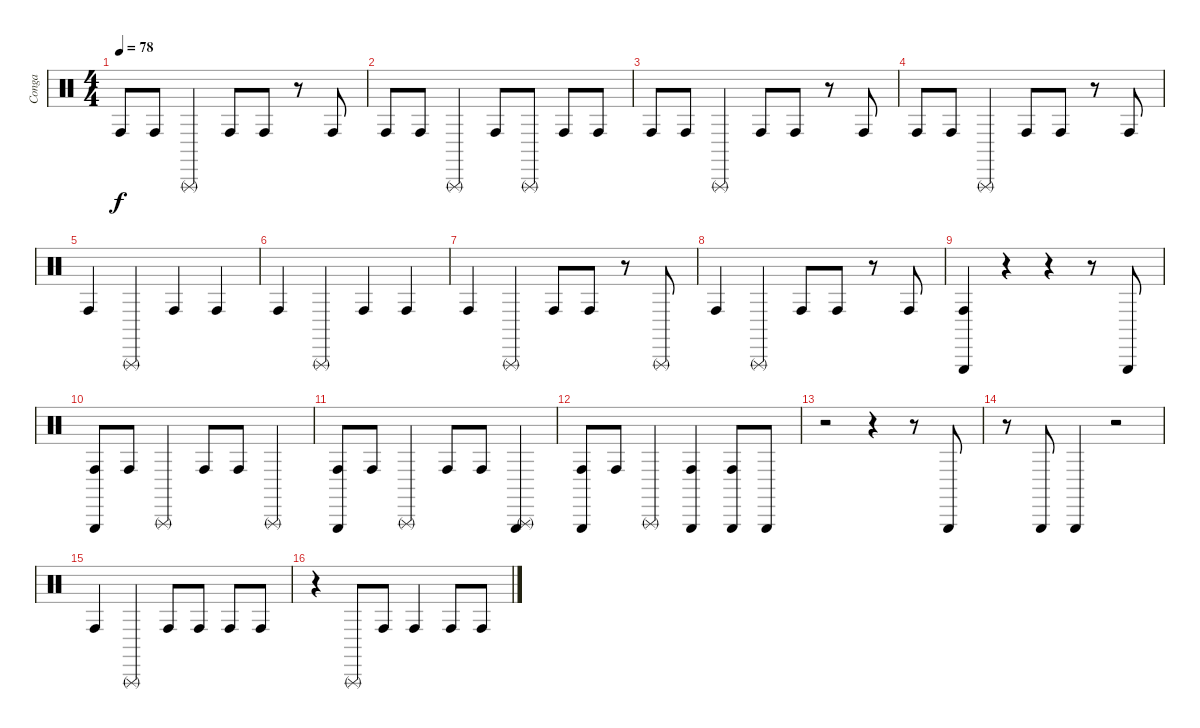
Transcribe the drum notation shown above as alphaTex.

\track ("Conga" "Conga") {instrument percussion}
\staff {score}
\articulation defaults
\ts (4 4)
\tempo 78
\clef neutral
\ks c "Conga high (hit)".8{dy f} "Conga high (hit)".8 "Triangle (rnute)".4 "Conga high (hit)".8 "Conga high (hit)".8
r.8 "Conga high (hit)".8 |
"Conga high (hit)".8 "Conga high (hit)".8 "Triangle (rnute)".4 "Conga high (hit)".8 "Triangle (rnute)".8 "Conga high (hit)".8 "Conga high (hit)".8 |
"Conga high (hit)".8 "Conga high (hit)".8 "Triangle (rnute)".4 "Conga high (hit)".8 "Conga high (hit)".8 r.8 "Conga high (hit)".8 |
"Conga high (hit)".8 "Conga high (hit)".8 "Triangle (rnute)".4 "Conga high (hit)".8 "Conga high (hit)".8 r.8 "Conga high (hit)".8 |
"Conga high (hit)".4 "Triangle (rnute)".4 "Conga high (hit)".4 "Conga high (hit)".4 |
"Conga high (hit)".4 "Triangle (rnute)".4 "Conga high (hit)".4 "Conga high (hit)".4 |
"Conga high (hit)".4 "Triangle (rnute)".4 "Conga high (hit)".8 "Conga high (hit)".8 r.8 "Triangle (rnute)".8 |
"Conga high (hit)".4 "Triangle (rnute)".4 "Conga high (hit)".8 "Conga high (hit)".8 r.8 "Conga high (hit)".8 |
("Triangle (hit)" "Conga high (hit)").4 r.4 r.4 r.8 "Triangle (hit)".8 |
("Triangle (hit)" "Conga high (hit)").8 "Conga high (hit)".8 "Triangle (rnute)".4 "Conga high (hit)".8 "Conga high (hit)".8 "Triangle (rnute)".4 |
("Triangle (hit)" "Conga high (hit)").8 "Conga high (hit)".8 "Triangle (rnute)".4 "Conga high (hit)".8 "Conga high (hit)".8 ("Triangle (hit)" "Triangle (rnute)").4 |
("Triangle (hit)" "Conga high (hit)").8 "Conga high (hit)".8 "Triangle (rnute)".4 ("Triangle (hit)" "Conga high (hit)").4 ("Triangle (hit)" "Conga high (hit)").8 "Triangle (hit)".8 |
r.2 r.4 r.8 "Triangle (hit)".8 |
r.8 "Triangle (hit)".8 "Triangle (hit)".4 r.2 |
"Conga high (hit)".4 "Triangle (rnute)".4 "Conga high (hit)".8 "Conga high (hit)".8 "Conga high (hit)".8 "Conga high (hit)".8 |
r.4 "Triangle (rnute)".8 "Conga high (hit)".8 "Conga high (hit)".4 "Conga high (hit)".8 "Conga high (hit)".8
